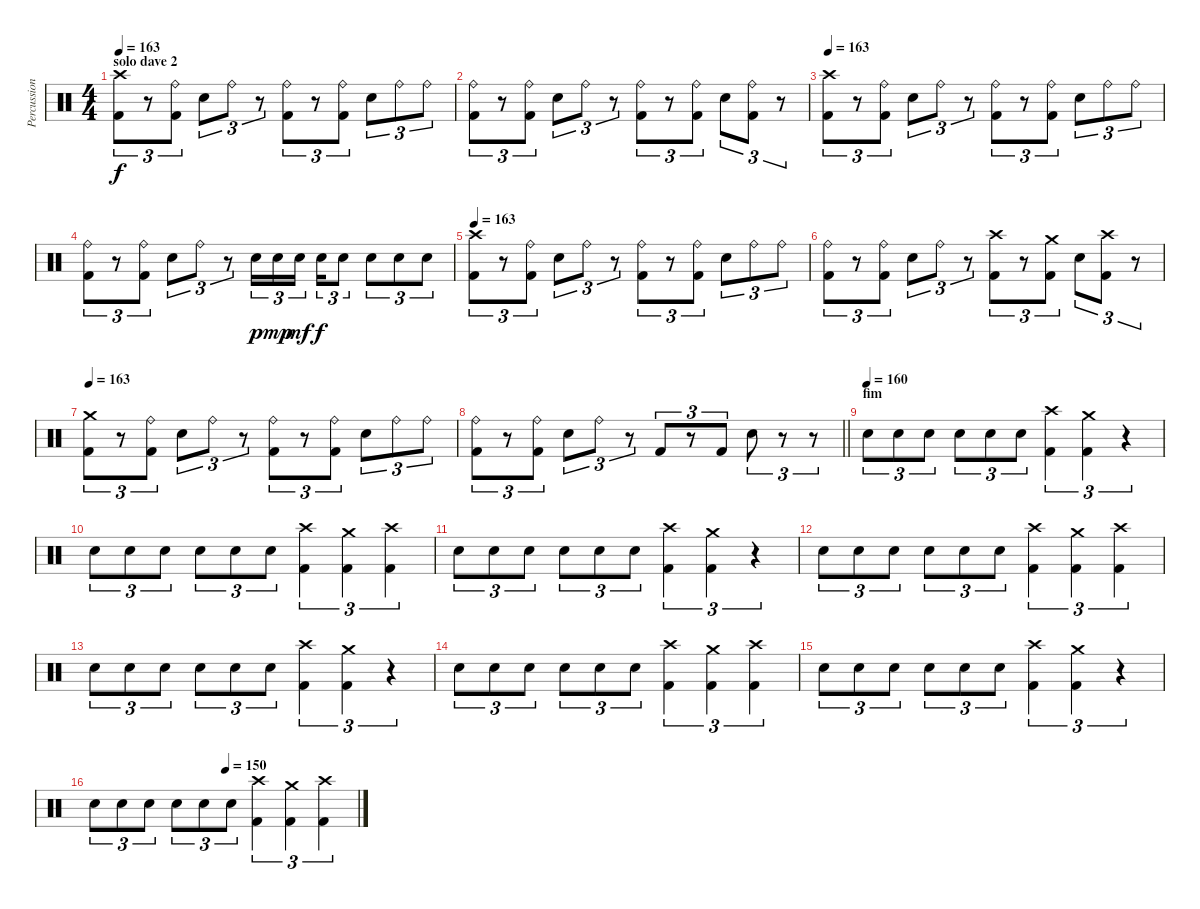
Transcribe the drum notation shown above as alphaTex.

\track ("Percussion" "Percussion") {instrument percussion}
\staff {score}
\articulation defaults
\ts (4 4)
\section ("" "solo dave 2")
\tempo 163
\clef neutral
\ks c
("Crash high (hit)" "Kick (hit) 2").8{tu (3 2) dy f} r.8{tu (3 2)} ("Ride (bell)" "Kick (hit) 2").8{tu (3 2)} "Snare (hit) 2".8{tu (3 2)} "Ride (bell)".8{tu (3 2)} r.8{tu (3 2)} ("Ride (bell)" "Kick (hit) 2").8{tu (3 2)} r.8{tu (3 2)} ("Ride (bell)" "Kick (hit) 2").8{tu (3 2)} "Snare (hit) 2".8{tu (3 2)} "Ride (bell)".8{tu (3 2)} "Ride (bell)".8{tu (3 2)} |
("Ride (bell)" "Kick (hit) 2").8{tu (3 2)} r.8{tu (3 2)} ("Ride (bell)" "Kick (hit) 2").8{tu (3 2)} "Snare (hit) 2".8{tu (3 2)} "Ride (bell)".8{tu (3 2)} r.8{tu (3 2)} ("Ride (bell)" "Kick (hit) 2").8{tu (3 2)} r.8{tu (3 2)} ("Ride (bell)" "Kick (hit) 2").8{tu (3 2)} "Snare (hit) 2".8{tu (3 2)} ("Ride (bell)" "Kick (hit) 2").8{tu (3 2)} r.8{tu (3 2)} |
\tempo 163
("Crash high (hit)" "Kick (hit) 2").8{tu (3 2)} r.8{tu (3 2)} ("Ride (bell)" "Kick (hit) 2").8{tu (3 2)} "Snare (hit) 2".8{tu (3 2)} "Ride (bell)".8{tu (3 2)} r.8{tu (3 2)} ("Ride (bell)" "Kick (hit) 2").8{tu (3 2)} r.8{tu (3 2)} ("Ride (bell)" "Kick (hit) 2").8{tu (3 2)} "Snare (hit) 2".8{tu (3 2)} "Ride (bell)".8{tu (3 2)} "Ride (bell)".8{tu (3 2)} |
("Ride (bell)" "Kick (hit) 2").8{tu (3 2)} r.8{tu (3 2)} ("Ride (bell)" "Kick (hit) 2").8{tu (3 2)} "Snare (hit) 2".8{tu (3 2)} "Ride (bell)".8{tu (3 2)} r.8{tu (3 2)} "Snare (hit) 2".16{tu (3 2) dy p} "Snare (hit) 2".16{tu (3 2) dy mp} "Snare (hit) 2".16{tu (3 2) dy mf} "Snare (hit) 2".16{tu (3 2) dy f} "Snare (hit) 2".8{tu (3 2)} "Snare (hit) 2".8{tu (3 2)} "Snare (hit) 2".8{tu (3 2)} "Snare (hit) 2".8{tu (3 2)} |
\tempo 163
("Crash high (hit)" "Kick (hit) 2").8{tu (3 2)} r.8{tu (3 2)} ("Ride (bell)" "Kick (hit) 2").8{tu (3 2)} "Snare (hit) 2".8{tu (3 2)} "Ride (bell)".8{tu (3 2)} r.8{tu (3 2)} ("Ride (bell)" "Kick (hit) 2").8{tu (3 2)} r.8{tu (3 2)} ("Ride (bell)" "Kick (hit) 2").8{tu (3 2)} "Snare (hit) 2".8{tu (3 2)} "Ride (bell)".8{tu (3 2)} "Ride (bell)".8{tu (3 2)} |
("Ride (bell)" "Kick (hit) 2").8{tu (3 2)} r.8{tu (3 2)} ("Ride (bell)" "Kick (hit) 2").8{tu (3 2)} "Snare (hit) 2".8{tu (3 2)} "Ride (bell)".8{tu (3 2)} r.8{tu (3 2)} ("Crash high (hit)" "Kick (hit) 2").8{tu (3 2)} r.8{tu (3 2)} ("Crash medium (hit)" "Kick (hit) 2").8{tu (3 2)} "Snare (hit) 2".8{tu (3 2)} ("Crash high (hit)" "Kick (hit) 2").8{tu (3 2)} r.8{tu (3 2)} |
\tempo 163
("Crash medium (hit)" "Kick (hit) 2").8{tu (3 2)} r.8{tu (3 2)} ("Ride (bell)" "Kick (hit) 2").8{tu (3 2)} "Snare (hit) 2".8{tu (3 2)} "Ride (bell)".8{tu (3 2)} r.8{tu (3 2)} ("Ride (bell)" "Kick (hit) 2").8{tu (3 2)} r.8{tu (3 2)} ("Ride (bell)" "Kick (hit) 2").8{tu (3 2)} "Snare (hit) 2".8{tu (3 2)} "Ride (bell)".8{tu (3 2)} "Ride (bell)".8{tu (3 2)} |
\barLineRight lightlight
("Ride (bell)" "Kick (hit) 2").8{tu (3 2)} r.8{tu (3 2)} ("Ride (bell)" "Kick (hit) 2").8{tu (3 2)} "Snare (hit) 2".8{tu (3 2)} "Ride (bell)".8{tu (3 2)} r.8{tu (3 2)} "Kick (hit) 2".8{tu (3 2)} r.8{tu (3 2)} "Kick (hit) 2".8{tu (3 2)} "Snare (hit) 2".8{tu (3 2)} r.8{tu (3 2)} r.8{tu (3 2)} |
\section ("" "fim")
\tempo (160)
"Snare (hit) 2".8{tu (3 2)} "Snare (hit) 2".8{tu (3 2)} "Snare (hit) 2".8{tu (3 2)} "Snare (hit) 2".8{tu (3 2)} "Snare (hit) 2".8{tu (3 2)} "Snare (hit) 2".8{tu (3 2)} ("Crash high (hit)" "Kick (hit) 2").4{tu (3 2)} ("Crash medium (hit)" "Kick (hit) 2").4{tu (3 2)} r.4{tu (3 2)} |
"Snare (hit) 2".8{tu (3 2)} "Snare (hit) 2".8{tu (3 2)} "Snare (hit) 2".8{tu (3 2)} "Snare (hit) 2".8{tu (3 2)} "Snare (hit) 2".8{tu (3 2)} "Snare (hit) 2".8{tu (3 2)} ("Crash high (hit)" "Kick (hit) 2").4{tu (3 2)} ("Crash medium (hit)" "Kick (hit) 2").4{tu (3 2)} ("Crash high (hit)" "Kick (hit) 2").4{tu (3 2)} |
"Snare (hit) 2".8{tu (3 2)} "Snare (hit) 2".8{tu (3 2)} "Snare (hit) 2".8{tu (3 2)} "Snare (hit) 2".8{tu (3 2)} "Snare (hit) 2".8{tu (3 2)} "Snare (hit) 2".8{tu (3 2)} ("Crash high (hit)" "Kick (hit) 2").4{tu (3 2)} ("Crash medium (hit)" "Kick (hit) 2").4{tu (3 2)} r.4{tu (3 2)} |
"Snare (hit) 2".8{tu (3 2)} "Snare (hit) 2".8{tu (3 2)} "Snare (hit) 2".8{tu (3 2)} "Snare (hit) 2".8{tu (3 2)} "Snare (hit) 2".8{tu (3 2)} "Snare (hit) 2".8{tu (3 2)} ("Crash high (hit)" "Kick (hit) 2").4{tu (3 2)} ("Crash medium (hit)" "Kick (hit) 2").4{tu (3 2)} ("Crash high (hit)" "Kick (hit) 2").4{tu (3 2)} |
"Snare (hit) 2".8{tu (3 2)} "Snare (hit) 2".8{tu (3 2)} "Snare (hit) 2".8{tu (3 2)} "Snare (hit) 2".8{tu (3 2)} "Snare (hit) 2".8{tu (3 2)} "Snare (hit) 2".8{tu (3 2)} ("Crash high (hit)" "Kick (hit) 2").4{tu (3 2)} ("Crash medium (hit)" "Kick (hit) 2").4{tu (3 2)} r.4{tu (3 2)} |
"Snare (hit) 2".8{tu (3 2)} "Snare (hit) 2".8{tu (3 2)} "Snare (hit) 2".8{tu (3 2)} "Snare (hit) 2".8{tu (3 2)} "Snare (hit) 2".8{tu (3 2)} "Snare (hit) 2".8{tu (3 2)} ("Crash high (hit)" "Kick (hit) 2").4{tu (3 2)} ("Crash medium (hit)" "Kick (hit) 2").4{tu (3 2)} ("Crash high (hit)" "Kick (hit) 2").4{tu (3 2)} |
"Snare (hit) 2".8{tu (3 2)} "Snare (hit) 2".8{tu (3 2)} "Snare (hit) 2".8{tu (3 2)} "Snare (hit) 2".8{tu (3 2)} "Snare (hit) 2".8{tu (3 2)} "Snare (hit) 2".8{tu (3 2)} ("Crash high (hit)" "Kick (hit) 2").4{tu (3 2)} ("Crash medium (hit)" "Kick (hit) 2").4{tu (3 2)} r.4{tu (3 2)} |
\tempo (150 0.5)
"Snare (hit) 2".8{tu (3 2)} "Snare (hit) 2".8{tu (3 2)} "Snare (hit) 2".8{tu (3 2)} "Snare (hit) 2".8{tu (3 2)} "Snare (hit) 2".8{tu (3 2)} "Snare (hit) 2".8{tu (3 2)} ("Crash high (hit)" "Kick (hit) 2").4{tu (3 2)} ("Crash medium (hit)" "Kick (hit) 2").4{tu (3 2)} ("Crash high (hit)" "Kick (hit) 2").4{tu (3 2)}
